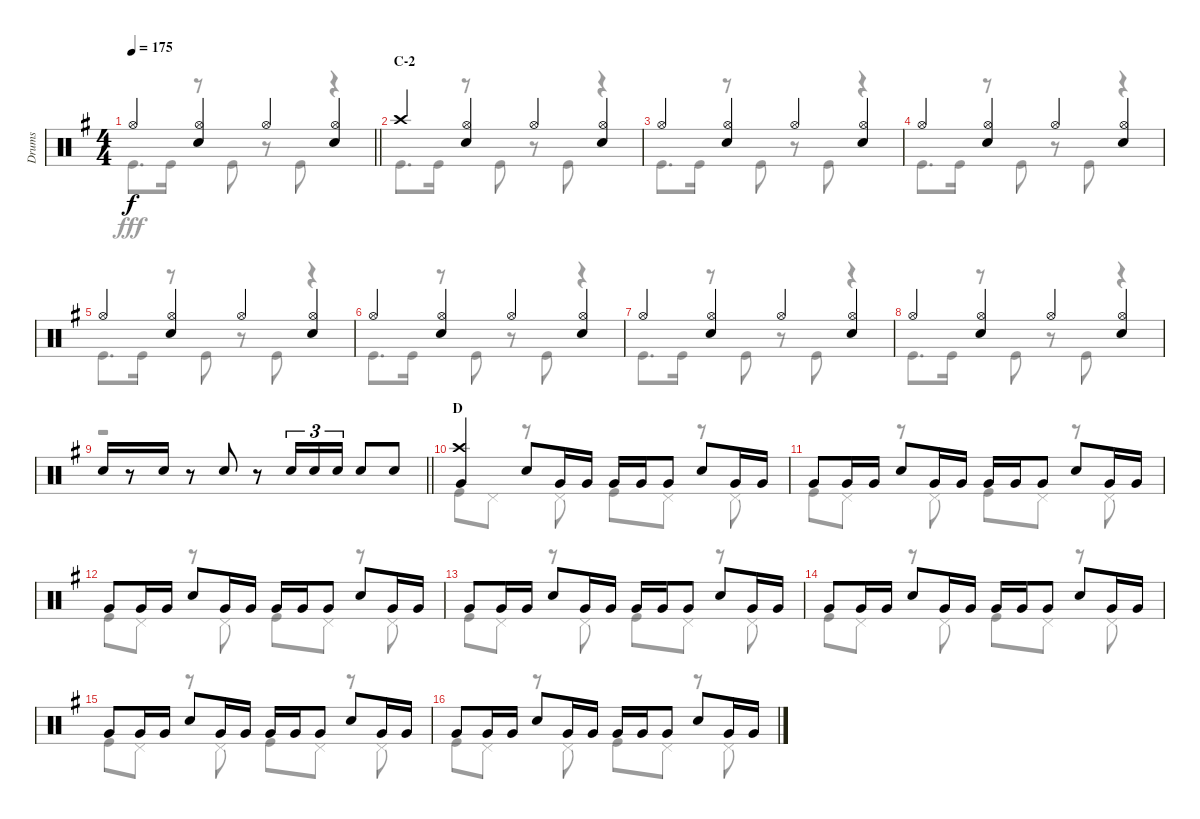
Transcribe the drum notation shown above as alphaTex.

\track ("Drums" "Drums") {instrument percussion}
\staff {score}
\articulation defaults
\voice
\ts (4 4)
\tempo 175
\clef neutral
\barLineRight lightlight
\ks g "Hi-Hat (open)".4{dy f}
("Hi-Hat (open)" "Snare (hit) 2").4 "Hi-Hat (open)".4 ("Hi-Hat (open)" "Snare (hit) 2").4 |
\section ("" "C-2")
"Crash high (hit)".4 ("Hi-Hat (open)" "Snare (hit) 2").4 "Hi-Hat (open)".4 ("Hi-Hat (open)" "Snare (hit) 2").4 |
"Hi-Hat (open)".4 ("Hi-Hat (open)" "Snare (hit) 2").4 "Hi-Hat (open)".4 ("Hi-Hat (open)" "Snare (hit) 2").4 |
"Hi-Hat (open)".4 ("Hi-Hat (open)" "Snare (hit) 2").4 "Hi-Hat (open)".4 ("Hi-Hat (open)" "Snare (hit) 2").4 |
"Hi-Hat (open)".4 ("Hi-Hat (open)" "Snare (hit) 2").4 "Hi-Hat (open)".4 ("Hi-Hat (open)" "Snare (hit) 2").4 |
"Hi-Hat (open)".4 ("Hi-Hat (open)" "Snare (hit) 2").4 "Hi-Hat (open)".4 ("Hi-Hat (open)" "Snare (hit) 2").4 |
"Hi-Hat (open)".4 ("Hi-Hat (open)" "Snare (hit) 2").4 "Hi-Hat (open)".4 ("Hi-Hat (open)" "Snare (hit) 2").4 |
"Hi-Hat (open)".4 ("Hi-Hat (open)" "Snare (hit) 2").4 "Hi-Hat (open)".4 ("Hi-Hat (open)" "Snare (hit) 2").4 |
\barLineRight lightlight "Snare (hit) 2".16
r.8 "Snare (hit) 2".16 r.8 "Snare (hit) 2".8 r.8 "Snare (hit) 2".16{tu (3 2)} "Snare (hit) 2".16{tu (3 2)} "Snare (hit) 2".16{tu (3 2)} "Snare (hit) 2".8 "Snare (hit) 2".8 |
\section ("" "D")
("Crash high (hit)" "Very Low Tom (hit)").4 "Snare (hit) 2".8 "Very Low Tom (hit)".16 "Very Low Tom (hit)".16 "Very Low Tom (hit)".16 "Very Low Tom (hit)".16 "Very Low Tom (hit)".8 "Snare (hit) 2".8 "Very Low Tom (hit)".16 "Very Low Tom (hit)".16 |
"Very Low Tom (hit)".8 "Very Low Tom (hit)".16 "Very Low Tom (hit)".16 "Snare (hit) 2".8 "Very Low Tom (hit)".16 "Very Low Tom (hit)".16 "Very Low Tom (hit)".16 "Very Low Tom (hit)".16 "Very Low Tom (hit)".8 "Snare (hit) 2".8 "Very Low Tom (hit)".16 "Very Low Tom (hit)".16 |
"Very Low Tom (hit)".8 "Very Low Tom (hit)".16 "Very Low Tom (hit)".16 "Snare (hit) 2".8 "Very Low Tom (hit)".16 "Very Low Tom (hit)".16 "Very Low Tom (hit)".16 "Very Low Tom (hit)".16 "Very Low Tom (hit)".8 "Snare (hit) 2".8 "Very Low Tom (hit)".16 "Very Low Tom (hit)".16 |
"Very Low Tom (hit)".8 "Very Low Tom (hit)".16 "Very Low Tom (hit)".16 "Snare (hit) 2".8 "Very Low Tom (hit)".16 "Very Low Tom (hit)".16 "Very Low Tom (hit)".16 "Very Low Tom (hit)".16 "Very Low Tom (hit)".8 "Snare (hit) 2".8 "Very Low Tom (hit)".16 "Very Low Tom (hit)".16 |
"Very Low Tom (hit)".8 "Very Low Tom (hit)".16 "Very Low Tom (hit)".16 "Snare (hit) 2".8 "Very Low Tom (hit)".16 "Very Low Tom (hit)".16 "Very Low Tom (hit)".16 "Very Low Tom (hit)".16 "Very Low Tom (hit)".8 "Snare (hit) 2".8 "Very Low Tom (hit)".16 "Very Low Tom (hit)".16 |
"Very Low Tom (hit)".8 "Very Low Tom (hit)".16 "Very Low Tom (hit)".16 "Snare (hit) 2".8 "Very Low Tom (hit)".16 "Very Low Tom (hit)".16 "Very Low Tom (hit)".16 "Very Low Tom (hit)".16 "Very Low Tom (hit)".8 "Snare (hit) 2".8 "Very Low Tom (hit)".16 "Very Low Tom (hit)".16 |
"Very Low Tom (hit)".8 "Very Low Tom (hit)".16 "Very Low Tom (hit)".16 "Snare (hit) 2".8 "Very Low Tom (hit)".16 "Very Low Tom (hit)".16 "Very Low Tom (hit)".16 "Very Low Tom (hit)".16 "Very Low Tom (hit)".8 "Snare (hit) 2".8 "Very Low Tom (hit)".16 "Very Low Tom (hit)".16
\voice
\clef neutral
\ottava regular
\simile none
\barLineRight lightlight
\ks g "Kick (hit)".8{d dy fff} "Kick (hit)".16
r.8 "Kick (hit)".8 r.8 "Kick (hit)".8 r.4 |
"Kick (hit)".8{d} "Kick (hit)".16 r.8 "Kick (hit)".8 r.8 "Kick (hit)".8 r.4 |
"Kick (hit)".8{d} "Kick (hit)".16 r.8 "Kick (hit)".8 r.8 "Kick (hit)".8 r.4 |
"Kick (hit)".8{d} "Kick (hit)".16 r.8 "Kick (hit)".8 r.8 "Kick (hit)".8 r.4 |
"Kick (hit)".8{d} "Kick (hit)".16 r.8 "Kick (hit)".8 r.8 "Kick (hit)".8 r.4 |
"Kick (hit)".8{d} "Kick (hit)".16 r.8 "Kick (hit)".8 r.8 "Kick (hit)".8 r.4 |
"Kick (hit)".8{d} "Kick (hit)".16 r.8 "Kick (hit)".8 r.8 "Kick (hit)".8 r.4 |
"Kick (hit)".8{d} "Kick (hit)".16 r.8 "Kick (hit)".8 r.8 "Kick (hit)".8 r.4 |
\barLineRight lightlight
r.1 |
"Kick (hit)".8 "Pedal Hi-Hat (hit)".8 r.8 "Pedal Hi-Hat (hit)".8 "Kick (hit)".8 "Pedal Hi-Hat (hit)".8 r.8 "Pedal Hi-Hat (hit)".8 |
"Kick (hit)".8 "Pedal Hi-Hat (hit)".8 r.8 "Pedal Hi-Hat (hit)".8 "Kick (hit)".8 "Pedal Hi-Hat (hit)".8 r.8 "Pedal Hi-Hat (hit)".8 |
"Kick (hit)".8 "Pedal Hi-Hat (hit)".8 r.8 "Pedal Hi-Hat (hit)".8 "Kick (hit)".8 "Pedal Hi-Hat (hit)".8 r.8 "Pedal Hi-Hat (hit)".8 |
"Kick (hit)".8 "Pedal Hi-Hat (hit)".8 r.8 "Pedal Hi-Hat (hit)".8 "Kick (hit)".8 "Pedal Hi-Hat (hit)".8 r.8 "Pedal Hi-Hat (hit)".8 |
"Kick (hit)".8 "Pedal Hi-Hat (hit)".8 r.8 "Pedal Hi-Hat (hit)".8 "Kick (hit)".8 "Pedal Hi-Hat (hit)".8 r.8 "Pedal Hi-Hat (hit)".8 |
"Kick (hit)".8 "Pedal Hi-Hat (hit)".8 r.8 "Pedal Hi-Hat (hit)".8 "Kick (hit)".8 "Pedal Hi-Hat (hit)".8 r.8 "Pedal Hi-Hat (hit)".8 |
"Kick (hit)".8 "Pedal Hi-Hat (hit)".8 r.8 "Pedal Hi-Hat (hit)".8 "Kick (hit)".8 "Pedal Hi-Hat (hit)".8 r.8 "Pedal Hi-Hat (hit)".8
